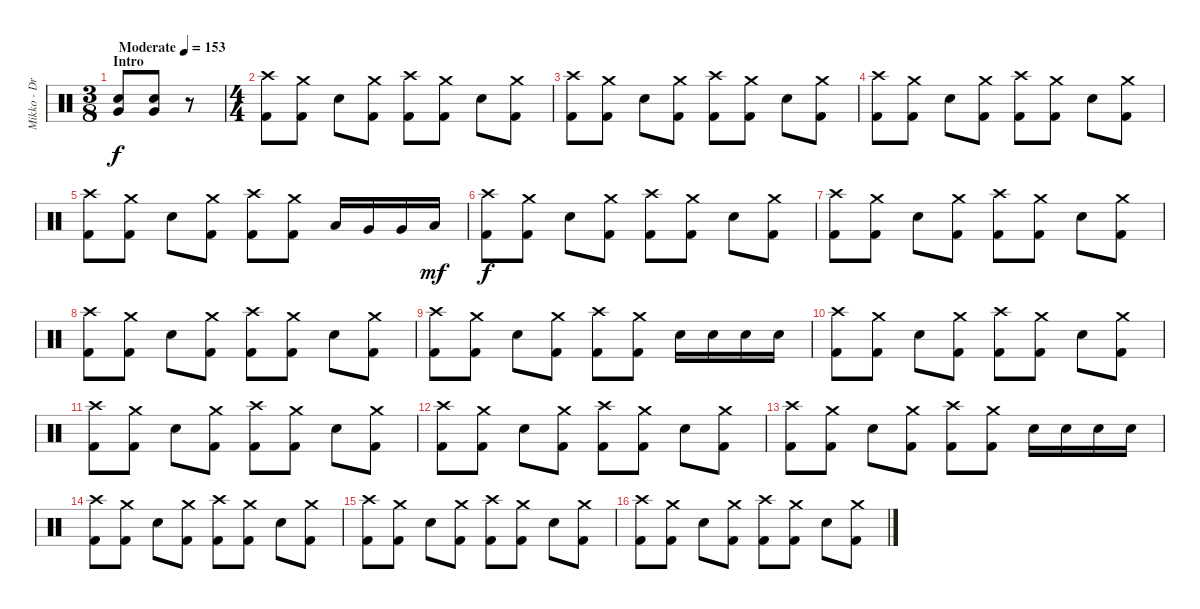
\track ("Mikko - Drums" "Mikko - Dr") {instrument percussion}
\staff {score}
\articulation defaults
\ts (3 8)
\section ("" "Intro")
\tempo (153 "Moderate")
\clef neutral
\ks c
("Snare (hit) 2" "Very Low Tom (hit)").8{dy f} ("Snare (hit) 2" "Very Low Tom (hit)").8 r.8 |
\ts (4 4)
("Crash high (hit)" "Kick (hit) 2").8 ("Crash medium (hit)" "Kick (hit) 2").8 "Snare (hit) 2".8 ("Crash medium (hit)" "Kick (hit) 2").8 ("Crash high (hit)" "Kick (hit) 2").8 ("Crash medium (hit)" "Kick (hit) 2").8 "Snare (hit) 2".8 ("Crash medium (hit)" "Kick (hit) 2").8 |
("Crash high (hit)" "Kick (hit) 2").8 ("Crash medium (hit)" "Kick (hit) 2").8 "Snare (hit) 2".8 ("Crash medium (hit)" "Kick (hit) 2").8 ("Crash high (hit)" "Kick (hit) 2").8 ("Crash medium (hit)" "Kick (hit) 2").8 "Snare (hit) 2".8 ("Crash medium (hit)" "Kick (hit) 2").8 |
("Crash high (hit)" "Kick (hit) 2").8 ("Crash medium (hit)" "Kick (hit) 2").8 "Snare (hit) 2".8 ("Crash medium (hit)" "Kick (hit) 2").8 ("Crash high (hit)" "Kick (hit) 2").8 ("Crash medium (hit)" "Kick (hit) 2").8 "Snare (hit) 2".8 ("Crash medium (hit)" "Kick (hit) 2").8 |
("Crash high (hit)" "Kick (hit) 2").8 ("Crash medium (hit)" "Kick (hit) 2").8 "Snare (hit) 2".8 ("Crash medium (hit)" "Kick (hit) 2").8 ("Crash high (hit)" "Kick (hit) 2").8 ("Crash medium (hit)" "Kick (hit) 2").8 "Low Tom (hit)".16 "Very Low Tom (hit)".16 "Very Low Tom (hit)".16 "Low Tom (hit)".16{dy mf} |
("Crash high (hit)" "Kick (hit) 2").8{dy f} ("Crash medium (hit)" "Kick (hit) 2").8 "Snare (hit) 2".8 ("Crash medium (hit)" "Kick (hit) 2").8 ("Crash high (hit)" "Kick (hit) 2").8 ("Crash medium (hit)" "Kick (hit) 2").8 "Snare (hit) 2".8 ("Crash medium (hit)" "Kick (hit) 2").8 |
("Crash high (hit)" "Kick (hit) 2").8 ("Crash medium (hit)" "Kick (hit) 2").8 "Snare (hit) 2".8 ("Crash medium (hit)" "Kick (hit) 2").8 ("Crash high (hit)" "Kick (hit) 2").8 ("Crash medium (hit)" "Kick (hit) 2").8 "Snare (hit) 2".8 ("Crash medium (hit)" "Kick (hit) 2").8 |
("Crash high (hit)" "Kick (hit) 2").8 ("Crash medium (hit)" "Kick (hit) 2").8 "Snare (hit) 2".8 ("Crash medium (hit)" "Kick (hit) 2").8 ("Crash high (hit)" "Kick (hit) 2").8 ("Crash medium (hit)" "Kick (hit) 2").8 "Snare (hit) 2".8 ("Crash medium (hit)" "Kick (hit) 2").8 |
("Crash high (hit)" "Kick (hit) 2").8 ("Crash medium (hit)" "Kick (hit) 2").8 "Snare (hit) 2".8 ("Crash medium (hit)" "Kick (hit) 2").8 ("Crash high (hit)" "Kick (hit) 2").8 ("Crash medium (hit)" "Kick (hit) 2").8 "Snare (hit) 2".16 "Snare (hit) 2".16 "Snare (hit) 2".16 "Snare (hit) 2".16 |
("Crash high (hit)" "Kick (hit) 2").8 ("Crash medium (hit)" "Kick (hit) 2").8 "Snare (hit) 2".8 ("Crash medium (hit)" "Kick (hit) 2").8 ("Crash high (hit)" "Kick (hit) 2").8 ("Crash medium (hit)" "Kick (hit) 2").8 "Snare (hit) 2".8 ("Crash medium (hit)" "Kick (hit) 2").8 |
("Crash high (hit)" "Kick (hit) 2").8 ("Crash medium (hit)" "Kick (hit) 2").8 "Snare (hit) 2".8 ("Crash medium (hit)" "Kick (hit) 2").8 ("Crash high (hit)" "Kick (hit) 2").8 ("Crash medium (hit)" "Kick (hit) 2").8 "Snare (hit) 2".8 ("Crash medium (hit)" "Kick (hit) 2").8 |
("Crash high (hit)" "Kick (hit) 2").8 ("Crash medium (hit)" "Kick (hit) 2").8 "Snare (hit) 2".8 ("Crash medium (hit)" "Kick (hit) 2").8 ("Crash high (hit)" "Kick (hit) 2").8 ("Crash medium (hit)" "Kick (hit) 2").8 "Snare (hit) 2".8 ("Crash medium (hit)" "Kick (hit) 2").8 |
("Crash high (hit)" "Kick (hit) 2").8 ("Crash medium (hit)" "Kick (hit) 2").8 "Snare (hit) 2".8 ("Crash medium (hit)" "Kick (hit) 2").8 ("Crash high (hit)" "Kick (hit) 2").8 ("Crash medium (hit)" "Kick (hit) 2").8 "Snare (hit) 2".16 "Snare (hit) 2".16 "Snare (hit) 2".16 "Snare (hit) 2".16 |
("Crash high (hit)" "Kick (hit) 2").8 ("Crash medium (hit)" "Kick (hit) 2").8 "Snare (hit) 2".8 ("Crash medium (hit)" "Kick (hit) 2").8 ("Crash high (hit)" "Kick (hit) 2").8 ("Crash medium (hit)" "Kick (hit) 2").8 "Snare (hit) 2".8 ("Crash medium (hit)" "Kick (hit) 2").8 |
("Crash high (hit)" "Kick (hit) 2").8 ("Crash medium (hit)" "Kick (hit) 2").8 "Snare (hit) 2".8 ("Crash medium (hit)" "Kick (hit) 2").8 ("Crash high (hit)" "Kick (hit) 2").8 ("Crash medium (hit)" "Kick (hit) 2").8 "Snare (hit) 2".8 ("Crash medium (hit)" "Kick (hit) 2").8 |
("Crash high (hit)" "Kick (hit) 2").8 ("Crash medium (hit)" "Kick (hit) 2").8 "Snare (hit) 2".8 ("Crash medium (hit)" "Kick (hit) 2").8 ("Crash high (hit)" "Kick (hit) 2").8 ("Crash medium (hit)" "Kick (hit) 2").8 "Snare (hit) 2".8 ("Crash medium (hit)" "Kick (hit) 2").8
